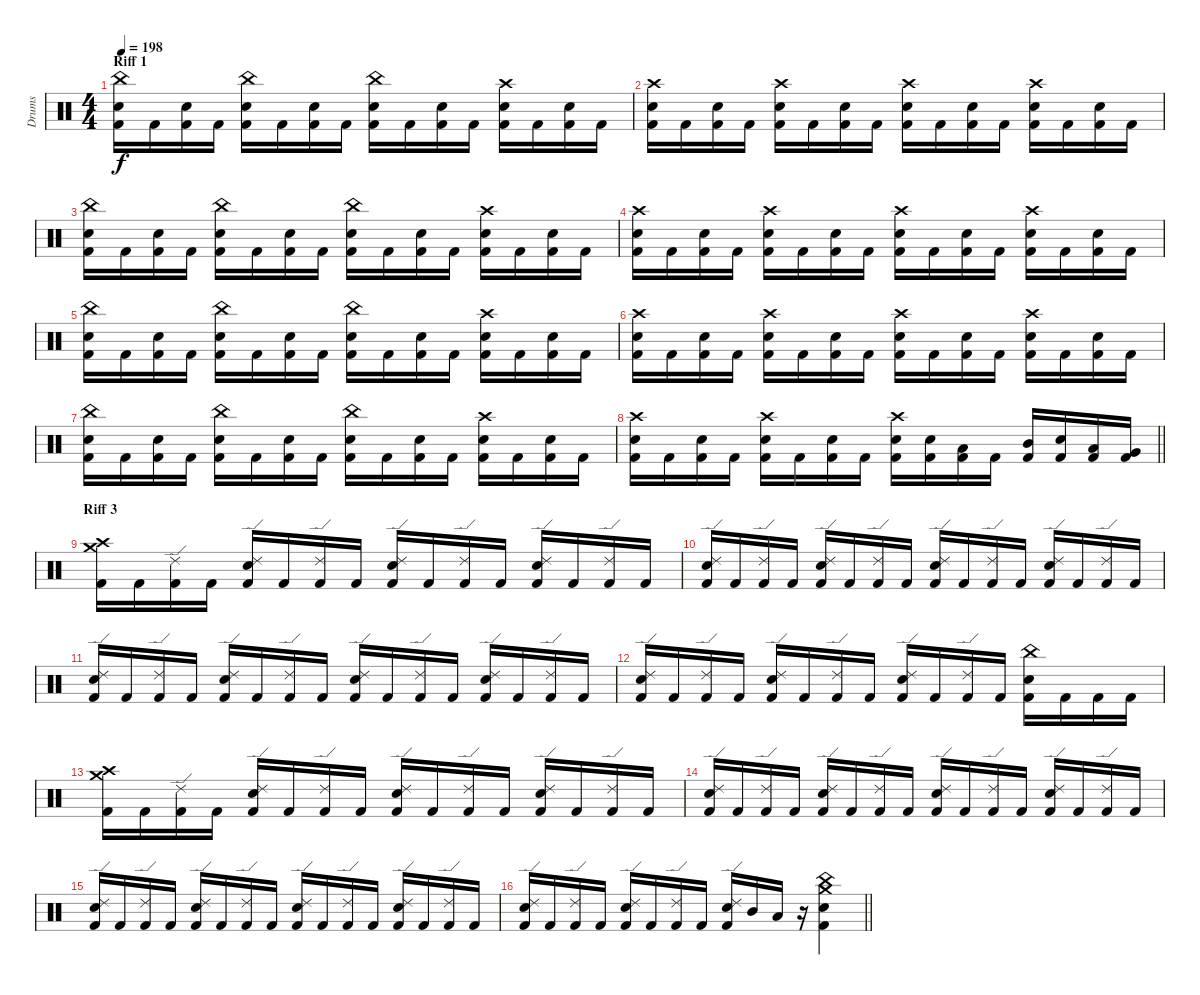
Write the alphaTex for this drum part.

\track ("Drums" "Drums") {instrument percussion}
\staff {score}
\articulation defaults
\ts (4 4)
\section ("" "Riff 1")
\tempo 198
\clef neutral
\ks c
("Kick (hit) 2" "Snare (hit) 2" "China (hit)").16{dy f} "Kick (hit) 2".16 ("Kick (hit) 2" "Snare (hit) 2").16 "Kick (hit) 2".16 ("Kick (hit) 2" "Snare (hit) 2" "China (hit)").16 "Kick (hit) 2".16 ("Kick (hit) 2" "Snare (hit) 2").16 "Kick (hit) 2".16 ("Kick (hit) 2" "Snare (hit) 2" "China (hit)").16 "Kick (hit) 2".16 ("Kick (hit) 2" "Snare (hit) 2").16 "Kick (hit) 2".16 ("Kick (hit) 2" "Snare (hit) 2" "Crash high (hit)").16 "Kick (hit) 2".16 ("Kick (hit) 2" "Snare (hit) 2").16 "Kick (hit) 2".16 |
("Kick (hit) 2" "Snare (hit) 2" "Crash high (hit)").16 "Kick (hit) 2".16 ("Kick (hit) 2" "Snare (hit) 2").16 "Kick (hit) 2".16 ("Kick (hit) 2" "Snare (hit) 2" "Crash high (hit)").16 "Kick (hit) 2".16 ("Kick (hit) 2" "Snare (hit) 2").16 "Kick (hit) 2".16 ("Kick (hit) 2" "Snare (hit) 2" "Crash high (hit)").16 "Kick (hit) 2".16 ("Kick (hit) 2" "Snare (hit) 2").16 "Kick (hit) 2".16 ("Kick (hit) 2" "Snare (hit) 2" "Crash high (hit)").16 "Kick (hit) 2".16 ("Kick (hit) 2" "Snare (hit) 2").16 "Kick (hit) 2".16 |
("Kick (hit) 2" "Snare (hit) 2" "China (hit)").16 "Kick (hit) 2".16 ("Kick (hit) 2" "Snare (hit) 2").16 "Kick (hit) 2".16 ("Kick (hit) 2" "Snare (hit) 2" "China (hit)").16 "Kick (hit) 2".16 ("Kick (hit) 2" "Snare (hit) 2").16 "Kick (hit) 2".16 ("Kick (hit) 2" "Snare (hit) 2" "China (hit)").16 "Kick (hit) 2".16 ("Kick (hit) 2" "Snare (hit) 2").16 "Kick (hit) 2".16 ("Kick (hit) 2" "Snare (hit) 2" "Crash high (hit)").16 "Kick (hit) 2".16 ("Kick (hit) 2" "Snare (hit) 2").16 "Kick (hit) 2".16 |
("Kick (hit) 2" "Snare (hit) 2" "Crash high (hit)").16 "Kick (hit) 2".16 ("Kick (hit) 2" "Snare (hit) 2").16 "Kick (hit) 2".16 ("Kick (hit) 2" "Snare (hit) 2" "Crash high (hit)").16 "Kick (hit) 2".16 ("Kick (hit) 2" "Snare (hit) 2").16 "Kick (hit) 2".16 ("Kick (hit) 2" "Snare (hit) 2" "Crash high (hit)").16 "Kick (hit) 2".16 ("Kick (hit) 2" "Snare (hit) 2").16 "Kick (hit) 2".16 ("Kick (hit) 2" "Snare (hit) 2" "Crash high (hit)").16 "Kick (hit) 2".16 ("Kick (hit) 2" "Snare (hit) 2").16 "Kick (hit) 2".16 |
("Kick (hit) 2" "Snare (hit) 2" "China (hit)").16 "Kick (hit) 2".16 ("Kick (hit) 2" "Snare (hit) 2").16 "Kick (hit) 2".16 ("Kick (hit) 2" "Snare (hit) 2" "China (hit)").16 "Kick (hit) 2".16 ("Kick (hit) 2" "Snare (hit) 2").16 "Kick (hit) 2".16 ("Kick (hit) 2" "Snare (hit) 2" "China (hit)").16 "Kick (hit) 2".16 ("Kick (hit) 2" "Snare (hit) 2").16 "Kick (hit) 2".16 ("Kick (hit) 2" "Snare (hit) 2" "Crash high (hit)").16 "Kick (hit) 2".16 ("Kick (hit) 2" "Snare (hit) 2").16 "Kick (hit) 2".16 |
("Kick (hit) 2" "Snare (hit) 2" "Crash high (hit)").16 "Kick (hit) 2".16 ("Kick (hit) 2" "Snare (hit) 2").16 "Kick (hit) 2".16 ("Kick (hit) 2" "Snare (hit) 2" "Crash high (hit)").16 "Kick (hit) 2".16 ("Kick (hit) 2" "Snare (hit) 2").16 "Kick (hit) 2".16 ("Kick (hit) 2" "Snare (hit) 2" "Crash high (hit)").16 "Kick (hit) 2".16 ("Kick (hit) 2" "Snare (hit) 2").16 "Kick (hit) 2".16 ("Kick (hit) 2" "Snare (hit) 2" "Crash high (hit)").16 "Kick (hit) 2".16 ("Kick (hit) 2" "Snare (hit) 2").16 "Kick (hit) 2".16 |
("Kick (hit) 2" "Snare (hit) 2" "China (hit)").16 "Kick (hit) 2".16 ("Kick (hit) 2" "Snare (hit) 2").16 "Kick (hit) 2".16 ("Kick (hit) 2" "Snare (hit) 2" "China (hit)").16 "Kick (hit) 2".16 ("Kick (hit) 2" "Snare (hit) 2").16 "Kick (hit) 2".16 ("Kick (hit) 2" "Snare (hit) 2" "China (hit)").16 "Kick (hit) 2".16 ("Kick (hit) 2" "Snare (hit) 2").16 "Kick (hit) 2".16 ("Kick (hit) 2" "Snare (hit) 2" "Crash high (hit)").16 "Kick (hit) 2".16 ("Kick (hit) 2" "Snare (hit) 2").16 "Kick (hit) 2".16 |
\barLineRight lightlight
("Kick (hit) 2" "Snare (hit) 2" "Crash high (hit)").16 "Kick (hit) 2".16 ("Kick (hit) 2" "Snare (hit) 2").16 "Kick (hit) 2".16 ("Kick (hit) 2" "Snare (hit) 2" "Crash high (hit)").16 "Kick (hit) 2".16 ("Kick (hit) 2" "Snare (hit) 2").16 "Kick (hit) 2".16 ("Kick (hit) 2" "Snare (hit) 2" "Crash high (hit)").16 ("Kick (hit) 2" "Snare (hit) 2").16 ("Kick (hit) 2" "Low Tom (hit)").16 "Kick (hit) 2".16 ("Kick (hit) 2" "Mid Tom (hit)").16 ("Kick (hit) 2" "Snare (hit) 2").16 ("Kick (hit) 2" "Low Tom (hit)").16 ("Kick (hit) 2" "Very Low Tom (hit)").16 |
\section ("" "Riff 3")
("Kick (hit) 2" "Crash high (hit)" "Crash medium (hit)").16 "Kick (hit) 2".16 ("Kick (hit) 2" "Ride (edge) 2").16 "Kick (hit) 2".16 ("Kick (hit) 2" "Snare (hit) 2" "Ride (edge) 2").16 "Kick (hit) 2".16 ("Kick (hit) 2" "Ride (edge) 2").16 "Kick (hit) 2".16 ("Kick (hit) 2" "Snare (hit) 2" "Ride (edge) 2").16 "Kick (hit) 2".16 ("Kick (hit) 2" "Ride (edge) 2").16 "Kick (hit) 2".16 ("Kick (hit) 2" "Snare (hit) 2" "Ride (edge) 2").16 "Kick (hit) 2".16 ("Kick (hit) 2" "Ride (edge) 2").16 "Kick (hit) 2".16 |
("Kick (hit) 2" "Snare (hit) 2" "Ride (edge) 2").16 "Kick (hit) 2".16 ("Kick (hit) 2" "Ride (edge) 2").16 "Kick (hit) 2".16 ("Kick (hit) 2" "Snare (hit) 2" "Ride (edge) 2").16 "Kick (hit) 2".16 ("Kick (hit) 2" "Ride (edge) 2").16 "Kick (hit) 2".16 ("Kick (hit) 2" "Snare (hit) 2" "Ride (edge) 2").16 "Kick (hit) 2".16 ("Kick (hit) 2" "Ride (edge) 2").16 "Kick (hit) 2".16 ("Kick (hit) 2" "Snare (hit) 2" "Ride (edge) 2").16 "Kick (hit) 2".16 ("Kick (hit) 2" "Ride (edge) 2").16 "Kick (hit) 2".16 |
("Kick (hit) 2" "Snare (hit) 2" "Ride (edge) 2").16 "Kick (hit) 2".16 ("Kick (hit) 2" "Ride (edge) 2").16 "Kick (hit) 2".16 ("Kick (hit) 2" "Snare (hit) 2" "Ride (edge) 2").16 "Kick (hit) 2".16 ("Kick (hit) 2" "Ride (edge) 2").16 "Kick (hit) 2".16 ("Kick (hit) 2" "Snare (hit) 2" "Ride (edge) 2").16 "Kick (hit) 2".16 ("Kick (hit) 2" "Ride (edge) 2").16 "Kick (hit) 2".16 ("Kick (hit) 2" "Snare (hit) 2" "Ride (edge) 2").16 "Kick (hit) 2".16 ("Kick (hit) 2" "Ride (edge) 2").16 "Kick (hit) 2".16 |
("Kick (hit) 2" "Snare (hit) 2" "Ride (edge) 2").16 "Kick (hit) 2".16 ("Kick (hit) 2" "Ride (edge) 2").16 "Kick (hit) 2".16 ("Kick (hit) 2" "Snare (hit) 2" "Ride (edge) 2").16 "Kick (hit) 2".16 ("Kick (hit) 2" "Ride (edge) 2").16 "Kick (hit) 2".16 ("Kick (hit) 2" "Snare (hit) 2" "Ride (edge) 2").16 "Kick (hit) 2".16 ("Kick (hit) 2" "Ride (edge) 2").16 "Kick (hit) 2".16 ("Kick (hit) 2" "Snare (hit) 2" "China (hit)").16 "Kick (hit) 2".16 "Kick (hit) 2".16 "Kick (hit) 2".16 |
("Kick (hit) 2" "Crash high (hit)" "Crash medium (hit)").16 "Kick (hit) 2".16 ("Kick (hit) 2" "Ride (edge) 2").16 "Kick (hit) 2".16 ("Kick (hit) 2" "Snare (hit) 2" "Ride (edge) 2").16 "Kick (hit) 2".16 ("Kick (hit) 2" "Ride (edge) 2").16 "Kick (hit) 2".16 ("Kick (hit) 2" "Snare (hit) 2" "Ride (edge) 2").16 "Kick (hit) 2".16 ("Kick (hit) 2" "Ride (edge) 2").16 "Kick (hit) 2".16 ("Kick (hit) 2" "Snare (hit) 2" "Ride (edge) 2").16 "Kick (hit) 2".16 ("Kick (hit) 2" "Ride (edge) 2").16 "Kick (hit) 2".16 |
("Kick (hit) 2" "Snare (hit) 2" "Ride (edge) 2").16 "Kick (hit) 2".16 ("Kick (hit) 2" "Ride (edge) 2").16 "Kick (hit) 2".16 ("Kick (hit) 2" "Snare (hit) 2" "Ride (edge) 2").16 "Kick (hit) 2".16 ("Kick (hit) 2" "Ride (edge) 2").16 "Kick (hit) 2".16 ("Kick (hit) 2" "Snare (hit) 2" "Ride (edge) 2").16 "Kick (hit) 2".16 ("Kick (hit) 2" "Ride (edge) 2").16 "Kick (hit) 2".16 ("Kick (hit) 2" "Snare (hit) 2" "Ride (edge) 2").16 "Kick (hit) 2".16 ("Kick (hit) 2" "Ride (edge) 2").16 "Kick (hit) 2".16 |
("Kick (hit) 2" "Snare (hit) 2" "Ride (edge) 2").16 "Kick (hit) 2".16 ("Kick (hit) 2" "Ride (edge) 2").16 "Kick (hit) 2".16 ("Kick (hit) 2" "Snare (hit) 2" "Ride (edge) 2").16 "Kick (hit) 2".16 ("Kick (hit) 2" "Ride (edge) 2").16 "Kick (hit) 2".16 ("Kick (hit) 2" "Snare (hit) 2" "Ride (edge) 2").16 "Kick (hit) 2".16 ("Kick (hit) 2" "Ride (edge) 2").16 "Kick (hit) 2".16 ("Kick (hit) 2" "Snare (hit) 2" "Ride (edge) 2").16 "Kick (hit) 2".16 ("Kick (hit) 2" "Ride (edge) 2").16 "Kick (hit) 2".16 |
\barLineRight lightlight
("Kick (hit) 2" "Snare (hit) 2" "Ride (edge) 2").16 "Kick (hit) 2".16 ("Kick (hit) 2" "Ride (edge) 2").16 "Kick (hit) 2".16 ("Kick (hit) 2" "Snare (hit) 2" "Ride (edge) 2").16 "Kick (hit) 2".16 ("Kick (hit) 2" "Ride (edge) 2").16 "Kick (hit) 2".16 ("Kick (hit) 2" "Snare (hit) 2" "Ride (edge) 2").16 "Mid Tom (hit)".16 "Low Tom (hit)".16 r.16 ("Kick (hit) 2" "Snare (hit) 2" "China (hit)" "Crash medium (hit)").4
